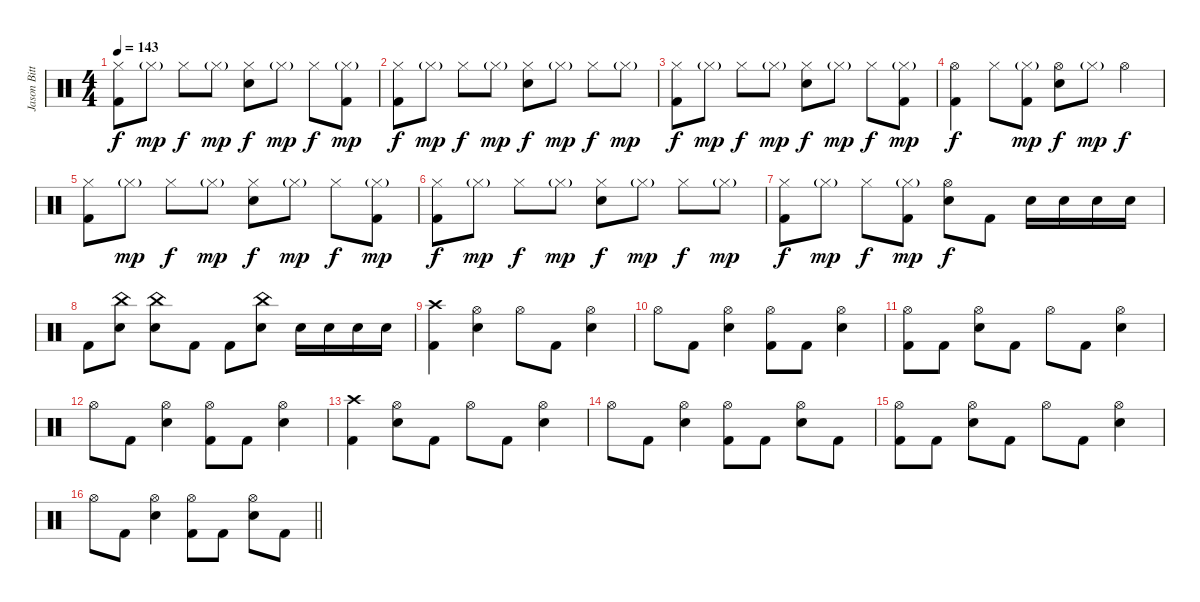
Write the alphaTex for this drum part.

\track ("Jason Bittner" "Jason Bitt") {instrument percussion}
\staff {score}
\articulation defaults
\ts (4 4)
\tempo 143
\clef neutral
\ks c
("Hi-Hat (closed)" "Kick (hit) 2").8{dy f} "Hi-Hat (closed)"{g}.8{dy mp} "Hi-Hat (closed)".8{dy f} "Hi-Hat (closed)"{g}.8{dy mp} ("Hi-Hat (closed)" "Electric Snare (hit)").8{dy f} "Hi-Hat (closed)"{g}.8{dy mp} "Hi-Hat (closed)".8{dy f} ("Hi-Hat (closed)"{g} "Kick (hit) 2").8{dy mp} |
("Hi-Hat (closed)" "Kick (hit) 2").8{dy f} "Hi-Hat (closed)"{g}.8{dy mp} "Hi-Hat (closed)".8{dy f} "Hi-Hat (closed)"{g}.8{dy mp} ("Hi-Hat (closed)" "Electric Snare (hit)").8{dy f} "Hi-Hat (closed)"{g}.8{dy mp} "Hi-Hat (closed)".8{dy f} "Hi-Hat (closed)"{g}.8{dy mp} |
("Hi-Hat (closed)" "Kick (hit) 2").8{dy f} "Hi-Hat (closed)"{g}.8{dy mp} "Hi-Hat (closed)".8{dy f} "Hi-Hat (closed)"{g}.8{dy mp} ("Hi-Hat (closed)" "Electric Snare (hit)").8{dy f} "Hi-Hat (closed)"{g}.8{dy mp} "Hi-Hat (closed)".8{dy f} ("Hi-Hat (closed)"{g} "Kick (hit) 2").8{dy mp} |
("Hi-Hat (open)" "Kick (hit) 2").4{dy f} "Hi-Hat (closed)".8 ("Hi-Hat (closed)"{g} "Kick (hit) 2").8{dy mp} ("Hi-Hat (open)" "Electric Snare (hit)").8{dy f} "Hi-Hat (closed)"{g}.8{dy mp} "Hi-Hat (open)".4{dy f} |
("Hi-Hat (closed)" "Kick (hit) 2").8 "Hi-Hat (closed)"{g}.8{dy mp} "Hi-Hat (closed)".8{dy f} "Hi-Hat (closed)"{g}.8{dy mp} ("Hi-Hat (closed)" "Electric Snare (hit)").8{dy f} "Hi-Hat (closed)"{g}.8{dy mp} "Hi-Hat (closed)".8{dy f} ("Hi-Hat (closed)"{g} "Kick (hit) 2").8{dy mp} |
("Hi-Hat (closed)" "Kick (hit) 2").8{dy f} "Hi-Hat (closed)"{g}.8{dy mp} "Hi-Hat (closed)".8{dy f} "Hi-Hat (closed)"{g}.8{dy mp} ("Hi-Hat (closed)" "Electric Snare (hit)").8{dy f} "Hi-Hat (closed)"{g}.8{dy mp} "Hi-Hat (closed)".8{dy f} "Hi-Hat (closed)"{g}.8{dy mp} |
("Hi-Hat (closed)" "Kick (hit) 2").8{dy f} "Hi-Hat (closed)"{g}.8{dy mp} "Hi-Hat (closed)".8{dy f} ("Hi-Hat (closed)"{g} "Kick (hit) 2").8{dy mp} ("Hi-Hat (open)" "Electric Snare (hit)").8{dy f} "Kick (hit) 2".8 "Electric Snare (hit)".16 "Electric Snare (hit)".16 "Electric Snare (hit)".16 "Electric Snare (hit)".16 |
"Kick (hit) 2".8 ("China (hit)" "Electric Snare (hit)").8 ("China (hit)" "Electric Snare (hit)").8 "Kick (hit) 2".8 "Kick (hit) 2".8 ("China (hit)" "Electric Snare (hit)").8 "Electric Snare (hit)".16 "Electric Snare (hit)".16 "Electric Snare (hit)".16 "Electric Snare (hit)".16 |
("Crash high (hit)" "Kick (hit) 2").4 ("Hi-Hat (open)" "Electric Snare (hit)").4 "Hi-Hat (open)".8 "Kick (hit) 2".8 ("Hi-Hat (open)" "Electric Snare (hit)").4 |
"Hi-Hat (open)".8 "Kick (hit) 2".8 ("Hi-Hat (open)" "Electric Snare (hit)").4 ("Hi-Hat (open)" "Kick (hit) 2").8 "Kick (hit) 2".8 ("Hi-Hat (open)" "Electric Snare (hit)").4 |
("Hi-Hat (open)" "Kick (hit) 2").8 "Kick (hit) 2".8 ("Hi-Hat (open)" "Electric Snare (hit)").8 "Kick (hit) 2".8 "Hi-Hat (open)".8 "Kick (hit) 2".8 ("Hi-Hat (open)" "Electric Snare (hit)").4 |
"Hi-Hat (open)".8 "Kick (hit) 2".8 ("Hi-Hat (open)" "Electric Snare (hit)").4 ("Hi-Hat (open)" "Kick (hit) 2").8 "Kick (hit) 2".8 ("Hi-Hat (open)" "Electric Snare (hit)").4 |
("Crash high (hit)" "Kick (hit) 2").4 ("Hi-Hat (open)" "Electric Snare (hit)").8 "Kick (hit) 2".8 "Hi-Hat (open)".8 "Kick (hit) 2".8 ("Hi-Hat (open)" "Electric Snare (hit)").4 |
"Hi-Hat (open)".8 "Kick (hit) 2".8 ("Hi-Hat (open)" "Electric Snare (hit)").4 ("Hi-Hat (open)" "Kick (hit) 2").8 "Kick (hit) 2".8 ("Hi-Hat (open)" "Electric Snare (hit)").8 "Kick (hit) 2".8 |
("Hi-Hat (open)" "Kick (hit) 2").8 "Kick (hit) 2".8 ("Hi-Hat (open)" "Electric Snare (hit)").8 "Kick (hit) 2".8 "Hi-Hat (open)".8 "Kick (hit) 2".8 ("Hi-Hat (open)" "Electric Snare (hit)").4 |
\barLineRight lightlight "Hi-Hat (open)".8 "Kick (hit) 2".8
("Hi-Hat (open)" "Electric Snare (hit)").4 ("Hi-Hat (open)" "Kick (hit) 2").8 "Kick (hit) 2".8 ("Hi-Hat (open)" "Electric Snare (hit)").8 "Kick (hit) 2".8
